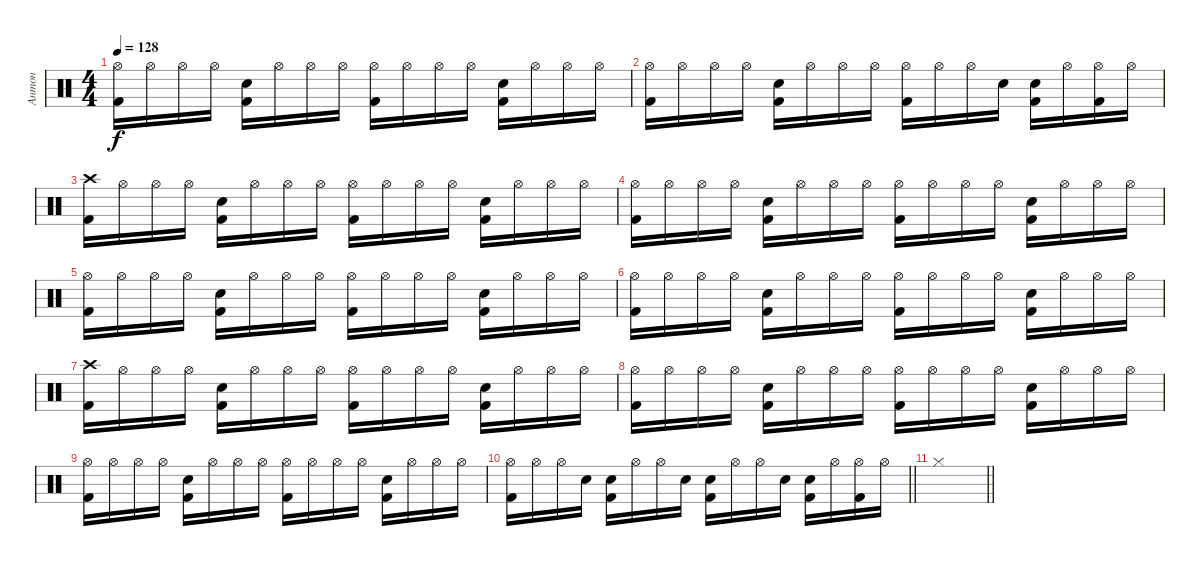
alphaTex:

\track ("Антон" "Антон") {instrument percussion}
\staff {score}
\articulation defaults
\ts (4 4)
\tempo 128
\clef neutral
\ks c
("Hi-Hat (open)" "Kick (hit) 2").16{dy f} "Hi-Hat (open)".16 "Hi-Hat (open)".16 "Hi-Hat (open)".16 ("Snare (hit) 2" "Kick (hit) 2").16 "Hi-Hat (open)".16 "Hi-Hat (open)".16 "Hi-Hat (open)".16 ("Hi-Hat (open)" "Kick (hit) 2").16 "Hi-Hat (open)".16 "Hi-Hat (open)".16 "Hi-Hat (open)".16 ("Snare (hit) 2" "Kick (hit) 2").16 "Hi-Hat (open)".16 "Hi-Hat (open)".16 "Hi-Hat (open)".16 |
("Hi-Hat (open)" "Kick (hit) 2").16 "Hi-Hat (open)".16 "Hi-Hat (open)".16 "Hi-Hat (open)".16 ("Snare (hit) 2" "Kick (hit) 2").16 "Hi-Hat (open)".16 "Hi-Hat (open)".16 "Hi-Hat (open)".16 ("Hi-Hat (open)" "Kick (hit) 2").16 "Hi-Hat (open)".16 "Hi-Hat (open)".16 "Snare (hit) 2".16 ("Snare (hit) 2" "Kick (hit) 2").16 "Hi-Hat (open)".16 ("Hi-Hat (open)" "Kick (hit) 2").16 "Hi-Hat (open)".16 |
("Crash high (hit)" "Kick (hit) 2").16 "Hi-Hat (open)".16 "Hi-Hat (open)".16 "Hi-Hat (open)".16 ("Snare (hit) 2" "Kick (hit) 2").16 "Hi-Hat (open)".16 "Hi-Hat (open)".16 "Hi-Hat (open)".16 ("Hi-Hat (open)" "Kick (hit) 2").16 "Hi-Hat (open)".16 "Hi-Hat (open)".16 "Hi-Hat (open)".16 ("Snare (hit) 2" "Kick (hit) 2").16 "Hi-Hat (open)".16 "Hi-Hat (open)".16 "Hi-Hat (open)".16 |
("Hi-Hat (open)" "Kick (hit) 2").16 "Hi-Hat (open)".16 "Hi-Hat (open)".16 "Hi-Hat (open)".16 ("Snare (hit) 2" "Kick (hit) 2").16 "Hi-Hat (open)".16 "Hi-Hat (open)".16 "Hi-Hat (open)".16 ("Hi-Hat (open)" "Kick (hit) 2").16 "Hi-Hat (open)".16 "Hi-Hat (open)".16 "Hi-Hat (open)".16 ("Snare (hit) 2" "Kick (hit) 2").16 "Hi-Hat (open)".16 "Hi-Hat (open)".16 "Hi-Hat (open)".16 |
("Hi-Hat (open)" "Kick (hit) 2").16 "Hi-Hat (open)".16 "Hi-Hat (open)".16 "Hi-Hat (open)".16 ("Snare (hit) 2" "Kick (hit) 2").16 "Hi-Hat (open)".16 "Hi-Hat (open)".16 "Hi-Hat (open)".16 ("Hi-Hat (open)" "Kick (hit) 2").16 "Hi-Hat (open)".16 "Hi-Hat (open)".16 "Hi-Hat (open)".16 ("Snare (hit) 2" "Kick (hit) 2").16 "Hi-Hat (open)".16 "Hi-Hat (open)".16 "Hi-Hat (open)".16 |
("Hi-Hat (open)" "Kick (hit) 2").16 "Hi-Hat (open)".16 "Hi-Hat (open)".16 "Hi-Hat (open)".16 ("Snare (hit) 2" "Kick (hit) 2").16 "Hi-Hat (open)".16 "Hi-Hat (open)".16 "Hi-Hat (open)".16 ("Hi-Hat (open)" "Kick (hit) 2").16 "Hi-Hat (open)".16 "Hi-Hat (open)".16 "Hi-Hat (open)".16 ("Snare (hit) 2" "Kick (hit) 2").16 "Hi-Hat (open)".16 "Hi-Hat (open)".16 "Hi-Hat (open)".16 |
("Crash high (hit)" "Kick (hit) 2").16 "Hi-Hat (open)".16 "Hi-Hat (open)".16 "Hi-Hat (open)".16 ("Snare (hit) 2" "Kick (hit) 2").16 "Hi-Hat (open)".16 "Hi-Hat (open)".16 "Hi-Hat (open)".16 ("Hi-Hat (open)" "Kick (hit) 2").16 "Hi-Hat (open)".16 "Hi-Hat (open)".16 "Hi-Hat (open)".16 ("Snare (hit) 2" "Kick (hit) 2").16 "Hi-Hat (open)".16 "Hi-Hat (open)".16 "Hi-Hat (open)".16 |
("Hi-Hat (open)" "Kick (hit) 2").16 "Hi-Hat (open)".16 "Hi-Hat (open)".16 "Hi-Hat (open)".16 ("Snare (hit) 2" "Kick (hit) 2").16 "Hi-Hat (open)".16 "Hi-Hat (open)".16 "Hi-Hat (open)".16 ("Hi-Hat (open)" "Kick (hit) 2").16 "Hi-Hat (open)".16 "Hi-Hat (open)".16 "Hi-Hat (open)".16 ("Snare (hit) 2" "Kick (hit) 2").16 "Hi-Hat (open)".16 "Hi-Hat (open)".16 "Hi-Hat (open)".16 |
("Hi-Hat (open)" "Kick (hit) 2").16 "Hi-Hat (open)".16 "Hi-Hat (open)".16 "Hi-Hat (open)".16 ("Snare (hit) 2" "Kick (hit) 2").16 "Hi-Hat (open)".16 "Hi-Hat (open)".16 "Hi-Hat (open)".16 ("Hi-Hat (open)" "Kick (hit) 2").16 "Hi-Hat (open)".16 "Hi-Hat (open)".16 "Hi-Hat (open)".16 ("Snare (hit) 2" "Kick (hit) 2").16 "Hi-Hat (open)".16 "Hi-Hat (open)".16 "Hi-Hat (open)".16 |
\barLineRight lightlight
("Hi-Hat (open)" "Kick (hit) 2").16 "Hi-Hat (open)".16 "Hi-Hat (open)".16 "Snare (hit) 2".16 ("Snare (hit) 2" "Kick (hit) 2").16 "Hi-Hat (open)".16 "Hi-Hat (open)".16 "Snare (hit) 2".16 ("Snare (hit) 2" "Kick (hit) 2").16 "Hi-Hat (open)".16 "Hi-Hat (open)".16 "Snare (hit) 2".16 ("Snare (hit) 2" "Kick (hit) 2").16 "Hi-Hat (open)".16 ("Hi-Hat (open)" "Kick (hit) 2").16 "Hi-Hat (open)".16 |
\barLineRight lightlight "Hi-Hat (closed)".1
